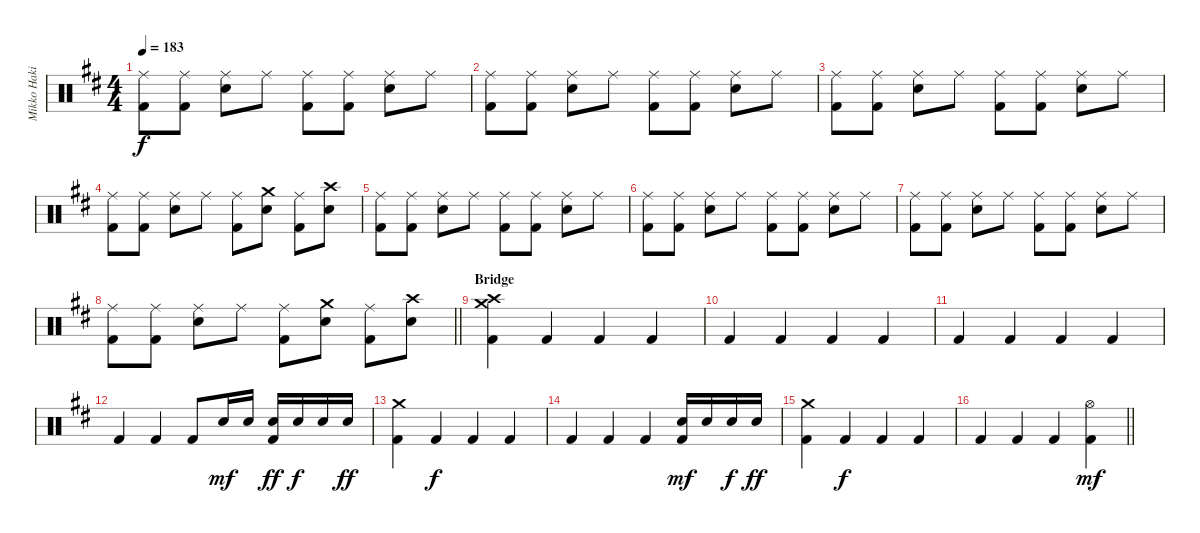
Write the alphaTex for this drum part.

\track ("Mikko Hakila - drums" "Mikko Haki") {instrument percussion}
\staff {score}
\articulation defaults
\ts (4 4)
\tempo 183
\clef neutral
\ks bminor
("Ride (middle)" "Kick (hit) 2").8{dy f} ("Ride (middle)" "Kick (hit) 2").8 ("Ride (middle)" "Electric Snare (hit)").8 "Ride (middle)".8 ("Ride (middle)" "Kick (hit) 2").8 ("Ride (middle)" "Kick (hit) 2").8 ("Ride (middle)" "Electric Snare (hit)").8 "Ride (middle)".8 |
("Ride (middle)" "Kick (hit) 2").8 ("Ride (middle)" "Kick (hit) 2").8 ("Ride (middle)" "Electric Snare (hit)").8 "Ride (middle)".8 ("Ride (middle)" "Kick (hit) 2").8 ("Ride (middle)" "Kick (hit) 2").8 ("Ride (middle)" "Electric Snare (hit)").8 "Ride (middle)".8 |
("Ride (middle)" "Kick (hit) 2").8 ("Ride (middle)" "Kick (hit) 2").8 ("Ride (middle)" "Electric Snare (hit)").8 "Ride (middle)".8 ("Ride (middle)" "Kick (hit) 2").8 ("Ride (middle)" "Kick (hit) 2").8 ("Ride (middle)" "Electric Snare (hit)").8 "Ride (middle)".8 |
("Ride (middle)" "Kick (hit) 2").8 ("Ride (middle)" "Kick (hit) 2").8 ("Ride (middle)" "Electric Snare (hit)").8 "Ride (middle)".8 ("Ride (middle)" "Kick (hit) 2").8 ("Crash medium (hit)" "Electric Snare (hit)").8 ("Ride (middle)" "Kick (hit) 2").8 ("Crash high (hit)" "Electric Snare (hit)").8 |
("Ride (middle)" "Kick (hit) 2").8 ("Ride (middle)" "Kick (hit) 2").8 ("Ride (middle)" "Electric Snare (hit)").8 "Ride (middle)".8 ("Ride (middle)" "Kick (hit) 2").8 ("Ride (middle)" "Kick (hit) 2").8 ("Ride (middle)" "Electric Snare (hit)").8 "Ride (middle)".8 |
("Ride (middle)" "Kick (hit) 2").8 ("Ride (middle)" "Kick (hit) 2").8 ("Ride (middle)" "Electric Snare (hit)").8 "Ride (middle)".8 ("Ride (middle)" "Kick (hit) 2").8 ("Ride (middle)" "Kick (hit) 2").8 ("Ride (middle)" "Electric Snare (hit)").8 "Ride (middle)".8 |
("Ride (middle)" "Kick (hit) 2").8 ("Ride (middle)" "Kick (hit) 2").8 ("Ride (middle)" "Electric Snare (hit)").8 "Ride (middle)".8 ("Ride (middle)" "Kick (hit) 2").8 ("Ride (middle)" "Kick (hit) 2").8 ("Ride (middle)" "Electric Snare (hit)").8 "Ride (middle)".8 |
\barLineRight lightlight
("Ride (middle)" "Kick (hit) 2").8 ("Ride (middle)" "Kick (hit) 2").8 ("Ride (middle)" "Electric Snare (hit)").8 "Ride (middle)".8 ("Ride (middle)" "Kick (hit) 2").8 ("Crash medium (hit)" "Electric Snare (hit)").8 ("Ride (middle)" "Kick (hit) 2").8 ("Crash high (hit)" "Electric Snare (hit)").8 |
\section ("" "Bridge")
("Crash medium (hit)" "Crash high (hit)" "Kick (hit) 2").4 "Kick (hit) 2".4 "Kick (hit) 2".4 "Kick (hit) 2".4 |
"Kick (hit) 2".4 "Kick (hit) 2".4 "Kick (hit) 2".4 "Kick (hit) 2".4 |
"Kick (hit) 2".4 "Kick (hit) 2".4 "Kick (hit) 2".4 "Kick (hit) 2".4 |
"Kick (hit) 2".4 "Kick (hit) 2".4 "Kick (hit) 2".8 "Electric Snare (hit)".16{dy mf} "Electric Snare (hit)".16 ("Electric Snare (hit)" "Kick (hit) 2").16{dy ff} "Electric Snare (hit)".16{dy f} "Electric Snare (hit)".16 "Electric Snare (hit)".16{dy ff} |
("Crash medium (hit)" "Kick (hit) 2").4 "Kick (hit) 2".4{dy f} "Kick (hit) 2".4 "Kick (hit) 2".4 |
"Kick (hit) 2".4 "Kick (hit) 2".4 "Kick (hit) 2".4 ("Electric Snare (hit)" "Kick (hit) 2").16{dy mf} "Electric Snare (hit)".16 "Electric Snare (hit)".16{dy f} "Electric Snare (hit)".16{dy ff} |
("Crash medium (hit)" "Kick (hit) 2").4 "Kick (hit) 2".4{dy f} "Kick (hit) 2".4 "Kick (hit) 2".4 |
\barLineRight lightlight "Kick (hit) 2".4 "Kick (hit) 2".4 "Kick (hit) 2".4
("Hi-Hat (open)" "Kick (hit) 2").4{dy mf}
